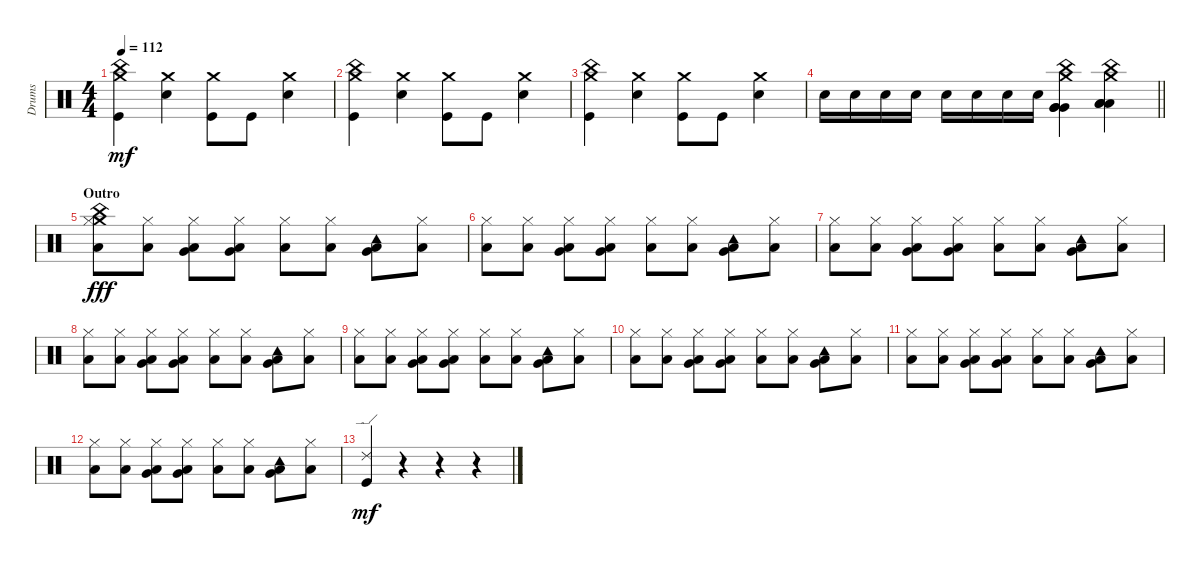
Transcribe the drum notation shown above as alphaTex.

\track ("Drums" "Drums") {instrument percussion}
\staff {score}
\articulation defaults
\ts (4 4)
\tempo 112
\clef neutral
\ks c
("China (hit)" "Crash medium (hit)" "Kick (hit)").4{dy mf} ("Crash medium (hit)" "Electric Snare (hit)").4 ("Crash medium (hit)" "Kick (hit)").8 "Kick (hit)".8 ("Crash medium (hit)" "Electric Snare (hit)").4 |
("China (hit)" "Crash medium (hit)" "Kick (hit)").4 ("Crash medium (hit)" "Electric Snare (hit)").4 ("Crash medium (hit)" "Kick (hit)").8 "Kick (hit)".8 ("Crash medium (hit)" "Electric Snare (hit)").4 |
("China (hit)" "Crash medium (hit)" "Kick (hit)").4 ("Crash medium (hit)" "Electric Snare (hit)").4 ("Crash medium (hit)" "Kick (hit)").8 "Kick (hit)".8 ("Crash medium (hit)" "Electric Snare (hit)").4 |
\barLineRight lightlight "Electric Snare (hit)".16 "Electric Snare (hit)".16 "Electric Snare (hit)".16 "Electric Snare (hit)".16 "Electric Snare (hit)".16 "Electric Snare (hit)".16 "Electric Snare (hit)".16 "Electric Snare (hit)".16
("Crash medium (hit)" "China (hit)" "Very Low Tom (hit)" "Very Low Tom (hit)" "Very Low Tom (hit)").4 ("Crash medium (hit)" "China (hit)" "Low Floor Tom (hit)" "Low Floor Tom (hit)" "Low Floor Tom (hit)").4 |
\section ("" "Outro")
("Crash medium (hit)" "China (hit)" "Hi-Hat (closed)" "Low Floor Tom (hit)").8{dy fff} ("Hi-Hat (closed)" "Low Floor Tom (hit)").8 ("Hi-Hat (closed)" "Very Low Tom (hit)" "Low Floor Tom (hit)").8 ("Hi-Hat (closed)" "Very Low Tom (hit)" "Low Floor Tom (hit)").8 ("Hi-Hat (closed)" "Low Floor Tom (hit)").8 ("Hi-Hat (closed)" "Low Floor Tom (hit)").8 ("Tambourine (hit)" "Very Low Tom (hit)" "Low Floor Tom (hit)").8 ("Hi-Hat (closed)" "Low Floor Tom (hit)").8 |
("Hi-Hat (closed)" "Low Floor Tom (hit)").8 ("Hi-Hat (closed)" "Low Floor Tom (hit)").8 ("Hi-Hat (closed)" "Very Low Tom (hit)" "Low Floor Tom (hit)").8 ("Hi-Hat (closed)" "Very Low Tom (hit)" "Low Floor Tom (hit)").8 ("Hi-Hat (closed)" "Low Floor Tom (hit)").8 ("Hi-Hat (closed)" "Low Floor Tom (hit)").8 ("Tambourine (hit)" "Very Low Tom (hit)" "Low Floor Tom (hit)").8 ("Hi-Hat (closed)" "Low Floor Tom (hit)").8 |
("Hi-Hat (closed)" "Low Floor Tom (hit)").8 ("Hi-Hat (closed)" "Low Floor Tom (hit)").8 ("Hi-Hat (closed)" "Very Low Tom (hit)" "Low Floor Tom (hit)").8 ("Hi-Hat (closed)" "Very Low Tom (hit)" "Low Floor Tom (hit)").8 ("Hi-Hat (closed)" "Low Floor Tom (hit)").8 ("Hi-Hat (closed)" "Low Floor Tom (hit)").8 ("Tambourine (hit)" "Very Low Tom (hit)" "Low Floor Tom (hit)").8 ("Hi-Hat (closed)" "Low Floor Tom (hit)").8 |
("Hi-Hat (closed)" "Low Floor Tom (hit)").8 ("Hi-Hat (closed)" "Low Floor Tom (hit)").8 ("Hi-Hat (closed)" "Very Low Tom (hit)" "Low Floor Tom (hit)").8 ("Hi-Hat (closed)" "Very Low Tom (hit)" "Low Floor Tom (hit)").8 ("Hi-Hat (closed)" "Low Floor Tom (hit)").8 ("Hi-Hat (closed)" "Low Floor Tom (hit)").8 ("Tambourine (hit)" "Very Low Tom (hit)" "Low Floor Tom (hit)").8 ("Hi-Hat (closed)" "Low Floor Tom (hit)").8 |
("Hi-Hat (closed)" "Low Floor Tom (hit)").8 ("Hi-Hat (closed)" "Low Floor Tom (hit)").8 ("Hi-Hat (closed)" "Very Low Tom (hit)" "Low Floor Tom (hit)").8 ("Hi-Hat (closed)" "Very Low Tom (hit)" "Low Floor Tom (hit)").8 ("Hi-Hat (closed)" "Low Floor Tom (hit)").8 ("Hi-Hat (closed)" "Low Floor Tom (hit)").8 ("Tambourine (hit)" "Very Low Tom (hit)" "Low Floor Tom (hit)").8 ("Hi-Hat (closed)" "Low Floor Tom (hit)").8 |
("Hi-Hat (closed)" "Low Floor Tom (hit)").8 ("Hi-Hat (closed)" "Low Floor Tom (hit)").8 ("Hi-Hat (closed)" "Very Low Tom (hit)" "Low Floor Tom (hit)").8 ("Hi-Hat (closed)" "Very Low Tom (hit)" "Low Floor Tom (hit)").8 ("Hi-Hat (closed)" "Low Floor Tom (hit)").8 ("Hi-Hat (closed)" "Low Floor Tom (hit)").8 ("Tambourine (hit)" "Very Low Tom (hit)" "Low Floor Tom (hit)").8 ("Hi-Hat (closed)" "Low Floor Tom (hit)").8 |
("Hi-Hat (closed)" "Low Floor Tom (hit)").8 ("Hi-Hat (closed)" "Low Floor Tom (hit)").8 ("Hi-Hat (closed)" "Very Low Tom (hit)" "Low Floor Tom (hit)").8 ("Hi-Hat (closed)" "Very Low Tom (hit)" "Low Floor Tom (hit)").8 ("Hi-Hat (closed)" "Low Floor Tom (hit)").8 ("Hi-Hat (closed)" "Low Floor Tom (hit)").8 ("Tambourine (hit)" "Very Low Tom (hit)" "Low Floor Tom (hit)").8 ("Hi-Hat (closed)" "Low Floor Tom (hit)").8 |
("Hi-Hat (closed)" "Low Floor Tom (hit)").8 ("Hi-Hat (closed)" "Low Floor Tom (hit)").8 ("Hi-Hat (closed)" "Very Low Tom (hit)" "Low Floor Tom (hit)").8 ("Hi-Hat (closed)" "Very Low Tom (hit)" "Low Floor Tom (hit)").8 ("Hi-Hat (closed)" "Low Floor Tom (hit)").8 ("Hi-Hat (closed)" "Low Floor Tom (hit)").8 ("Tambourine (hit)" "Very Low Tom (hit)" "Low Floor Tom (hit)").8 ("Hi-Hat (closed)" "Low Floor Tom (hit)").8 |
("Ride (edge) 2" "Kick (hit)").4{dy mf} r.4 r.4 r.4
